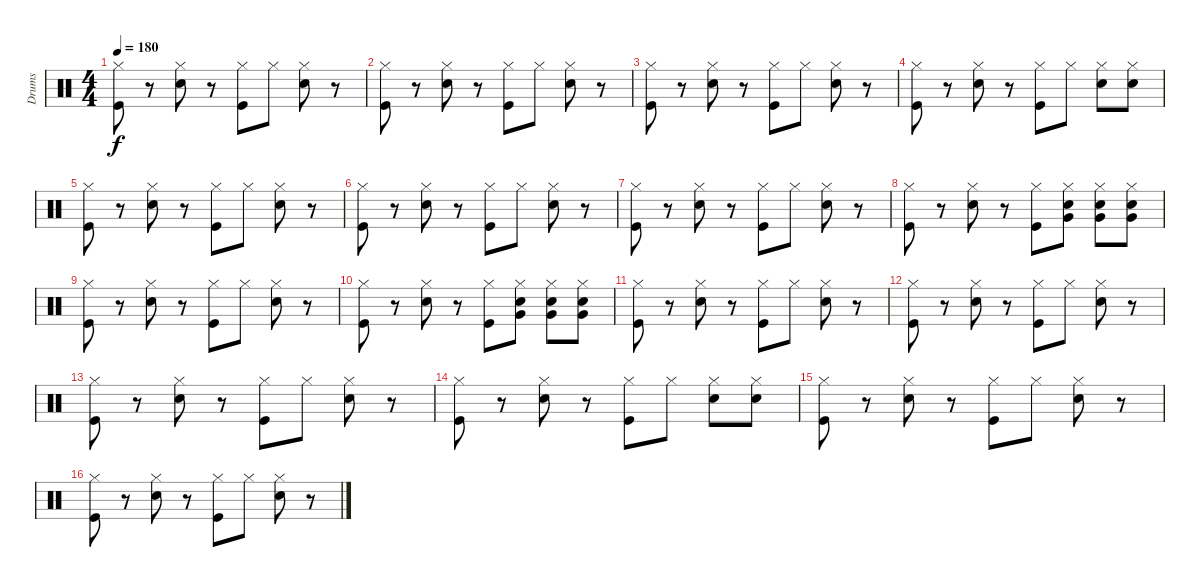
\track ("Drums" "Drums") {instrument percussion}
\staff {score}
\articulation defaults
\ts (4 4)
\tempo 180
\clef neutral
\ks c
("Hi-Hat (closed)" "Kick (hit)").8{dy f} r.8 ("Hi-Hat (closed)" "Snare (hit) 2").8 r.8 ("Hi-Hat (closed)" "Kick (hit)").8 "Hi-Hat (closed)".8 ("Hi-Hat (closed)" "Snare (hit) 2").8 r.8 |
("Hi-Hat (closed)" "Kick (hit)").8 r.8 ("Hi-Hat (closed)" "Snare (hit) 2").8 r.8 ("Hi-Hat (closed)" "Kick (hit)").8 "Hi-Hat (closed)".8 ("Hi-Hat (closed)" "Snare (hit) 2").8 r.8 |
("Hi-Hat (closed)" "Kick (hit)").8 r.8 ("Hi-Hat (closed)" "Snare (hit) 2").8 r.8 ("Hi-Hat (closed)" "Kick (hit)").8 "Hi-Hat (closed)".8 ("Hi-Hat (closed)" "Snare (hit) 2").8 r.8 |
("Hi-Hat (closed)" "Kick (hit)").8 r.8 ("Hi-Hat (closed)" "Snare (hit) 2").8 r.8 ("Hi-Hat (closed)" "Kick (hit)").8 "Hi-Hat (closed)".8 ("Hi-Hat (closed)" "Snare (hit) 2").8 ("Hi-Hat (closed)" "Snare (hit) 2").8 |
("Hi-Hat (closed)" "Kick (hit)").8 r.8 ("Hi-Hat (closed)" "Snare (hit) 2").8 r.8 ("Hi-Hat (closed)" "Kick (hit)").8 "Hi-Hat (closed)".8 ("Hi-Hat (closed)" "Snare (hit) 2").8 r.8 |
("Hi-Hat (closed)" "Kick (hit)").8 r.8 ("Hi-Hat (closed)" "Snare (hit) 2").8 r.8 ("Hi-Hat (closed)" "Kick (hit)").8 "Hi-Hat (closed)".8 ("Hi-Hat (closed)" "Snare (hit) 2").8 r.8 |
("Hi-Hat (closed)" "Kick (hit)").8 r.8 ("Hi-Hat (closed)" "Snare (hit) 2").8 r.8 ("Hi-Hat (closed)" "Kick (hit)").8 "Hi-Hat (closed)".8 ("Hi-Hat (closed)" "Snare (hit) 2").8 r.8 |
("Hi-Hat (closed)" "Kick (hit)").8 r.8 ("Hi-Hat (closed)" "Snare (hit) 2").8 r.8 ("Hi-Hat (closed)" "Kick (hit)").8 ("Hi-Hat (closed)" "Snare (hit) 2" "Very Low Tom (hit)").8 ("Hi-Hat (closed)" "Snare (hit) 2" "Very Low Tom (hit)").8 ("Hi-Hat (closed)" "Snare (hit) 2" "Very Low Tom (hit)").8 |
("Hi-Hat (closed)" "Kick (hit)").8 r.8 ("Hi-Hat (closed)" "Snare (hit) 2").8 r.8 ("Hi-Hat (closed)" "Kick (hit)").8 "Hi-Hat (closed)".8 ("Hi-Hat (closed)" "Snare (hit) 2").8 r.8 |
("Hi-Hat (closed)" "Kick (hit)").8 r.8 ("Hi-Hat (closed)" "Snare (hit) 2").8 r.8 ("Hi-Hat (closed)" "Kick (hit)").8 ("Hi-Hat (closed)" "Snare (hit) 2" "Very Low Tom (hit)").8 ("Hi-Hat (closed)" "Snare (hit) 2" "Very Low Tom (hit)").8 ("Hi-Hat (closed)" "Snare (hit) 2" "Very Low Tom (hit)").8 |
("Hi-Hat (closed)" "Kick (hit)").8 r.8 ("Hi-Hat (closed)" "Snare (hit) 2").8 r.8 ("Hi-Hat (closed)" "Kick (hit)").8 "Hi-Hat (closed)".8 ("Hi-Hat (closed)" "Snare (hit) 2").8 r.8 |
("Hi-Hat (closed)" "Kick (hit)").8 r.8 ("Hi-Hat (closed)" "Snare (hit) 2").8 r.8 ("Hi-Hat (closed)" "Kick (hit)").8 "Hi-Hat (closed)".8 ("Hi-Hat (closed)" "Snare (hit) 2").8 r.8 |
("Hi-Hat (closed)" "Kick (hit)").8 r.8 ("Hi-Hat (closed)" "Snare (hit) 2").8 r.8 ("Hi-Hat (closed)" "Kick (hit)").8 "Hi-Hat (closed)".8 ("Hi-Hat (closed)" "Snare (hit) 2").8 r.8 |
("Hi-Hat (closed)" "Kick (hit)").8 r.8 ("Hi-Hat (closed)" "Snare (hit) 2").8 r.8 ("Hi-Hat (closed)" "Kick (hit)").8 "Hi-Hat (closed)".8 ("Hi-Hat (closed)" "Snare (hit) 2").8 ("Hi-Hat (closed)" "Snare (hit) 2").8 |
("Hi-Hat (closed)" "Kick (hit)").8 r.8 ("Hi-Hat (closed)" "Snare (hit) 2").8 r.8 ("Hi-Hat (closed)" "Kick (hit)").8 "Hi-Hat (closed)".8 ("Hi-Hat (closed)" "Snare (hit) 2").8 r.8 |
("Hi-Hat (closed)" "Kick (hit)").8 r.8 ("Hi-Hat (closed)" "Snare (hit) 2").8 r.8 ("Hi-Hat (closed)" "Kick (hit)").8 "Hi-Hat (closed)".8 ("Hi-Hat (closed)" "Snare (hit) 2").8 r.8
